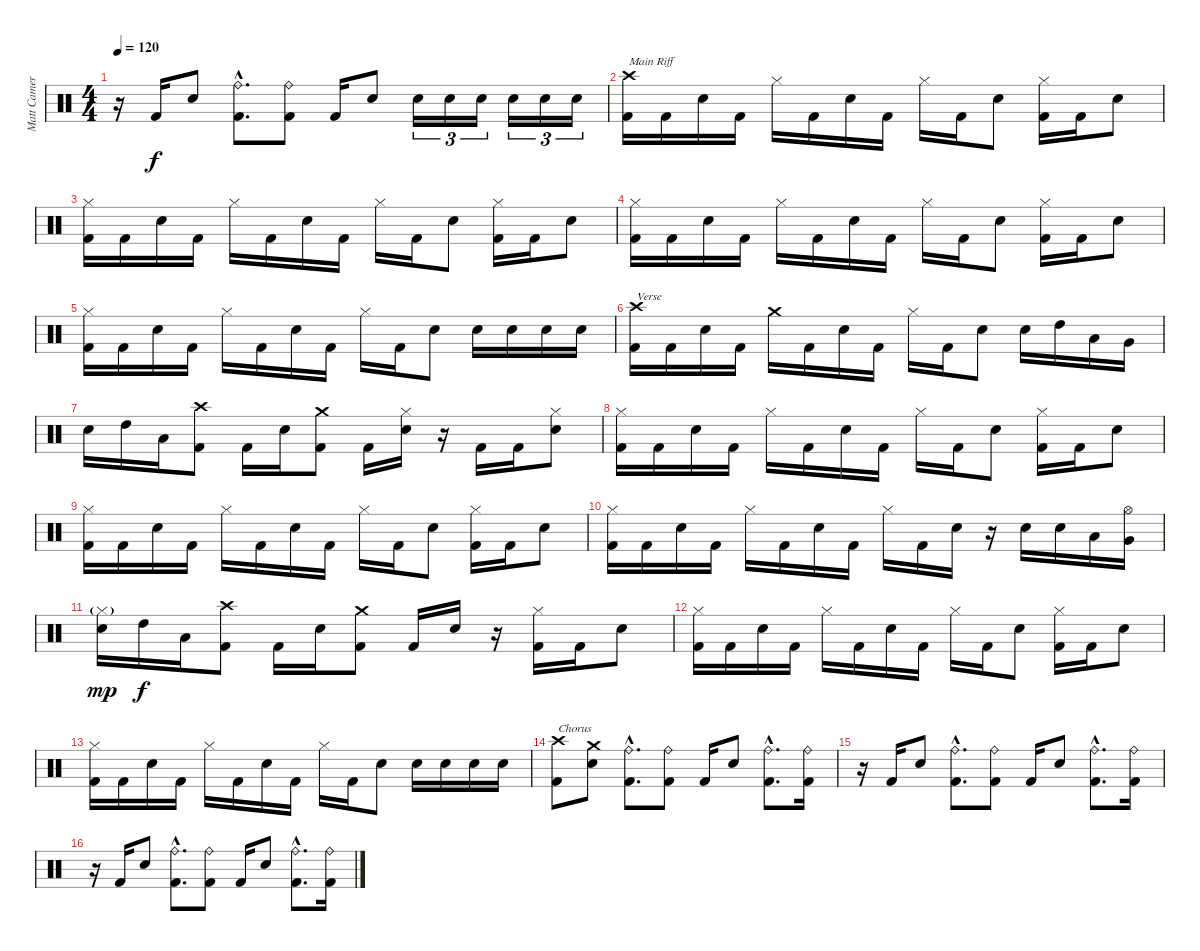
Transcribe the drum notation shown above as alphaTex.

\track ("Matt Cameron" "Matt Camer") {instrument percussion}
\staff {score}
\articulation defaults
\ts (4 4)
\tempo 120
\clef neutral
\ks c
r.16{dy f} "Kick (hit) 2".16 "Electric Snare (hit)".8 ("Ride (bell)"{hac} "Kick (hit) 2"{hac}).8{d} ("Ride (bell)" "Kick (hit) 2").8 "Kick (hit) 2".16 "Electric Snare (hit)".8 "Electric Snare (hit)".16{tu (3 2)} "Electric Snare (hit)".16{tu (3 2)} "Electric Snare (hit)".16{tu (3 2)} "Electric Snare (hit)".16{tu (3 2)} "Electric Snare (hit)".16{tu (3 2)} "Electric Snare (hit)".16{tu (3 2)} |
("Crash high (hit)" "Kick (hit) 2").16{txt "Main Riff"} "Kick (hit) 2".16 "Electric Snare (hit)".16 "Kick (hit) 2".16 "Hi-Hat (closed)".16 "Kick (hit) 2".16 "Electric Snare (hit)".16 "Kick (hit) 2".16 "Hi-Hat (closed)".16 "Kick (hit) 2".16 "Electric Snare (hit)".8 ("Hi-Hat (closed)" "Kick (hit) 2").16 "Kick (hit) 2".16 "Electric Snare (hit)".8 |
("Hi-Hat (closed)" "Kick (hit) 2").16 "Kick (hit) 2".16 "Electric Snare (hit)".16 "Kick (hit) 2".16 "Hi-Hat (closed)".16 "Kick (hit) 2".16 "Electric Snare (hit)".16 "Kick (hit) 2".16 "Hi-Hat (closed)".16 "Kick (hit) 2".16 "Electric Snare (hit)".8 ("Hi-Hat (closed)" "Kick (hit) 2").16 "Kick (hit) 2".16 "Electric Snare (hit)".8 |
("Hi-Hat (closed)" "Kick (hit) 2").16 "Kick (hit) 2".16 "Electric Snare (hit)".16 "Kick (hit) 2".16 "Hi-Hat (closed)".16 "Kick (hit) 2".16 "Electric Snare (hit)".16 "Kick (hit) 2".16 "Hi-Hat (closed)".16 "Kick (hit) 2".16 "Electric Snare (hit)".8 ("Hi-Hat (closed)" "Kick (hit) 2").16 "Kick (hit) 2".16 "Electric Snare (hit)".8 |
("Hi-Hat (closed)" "Kick (hit) 2").16 "Kick (hit) 2".16 "Electric Snare (hit)".16 "Kick (hit) 2".16 "Hi-Hat (closed)".16 "Kick (hit) 2".16 "Electric Snare (hit)".16 "Kick (hit) 2".16 "Hi-Hat (closed)".16 "Kick (hit) 2".16 "Electric Snare (hit)".8 "Electric Snare (hit)".16 "Electric Snare (hit)".16 "Electric Snare (hit)".16 "Electric Snare (hit)".16 |
("Crash high (hit)" "Kick (hit) 2").16{txt "Verse"} "Kick (hit) 2".16 "Electric Snare (hit)".16 "Kick (hit) 2".16 "Crash medium (hit)".16 "Kick (hit) 2".16 "Electric Snare (hit)".16 "Kick (hit) 2".16 "Hi-Hat (closed)".16 "Kick (hit) 2".16 "Electric Snare (hit)".8 "Electric Snare (hit)".16 "High Tom (hit)".16 "Low Tom (hit)".16 "Very Low Tom (hit)".16 |
"Electric Snare (hit)".16 "High Tom (hit)".16 "Low Tom (hit)".16 ("Crash high (hit)" "Kick (hit) 2").8 "Kick (hit) 2".16 "Electric Snare (hit)".16 ("Crash medium (hit)" "Kick (hit) 2").8 "Kick (hit) 2".16 ("Hi-Hat (closed)" "Electric Snare (hit)").16 r.16 "Kick (hit) 2".16 "Kick (hit) 2".16 ("Hi-Hat (closed)" "Electric Snare (hit)").8 |
("Hi-Hat (closed)" "Kick (hit) 2").16 "Kick (hit) 2".16 "Electric Snare (hit)".16 "Kick (hit) 2".16 "Hi-Hat (closed)".16 "Kick (hit) 2".16 "Electric Snare (hit)".16 "Kick (hit) 2".16 "Hi-Hat (closed)".16 "Kick (hit) 2".16 "Electric Snare (hit)".8 ("Hi-Hat (closed)" "Kick (hit) 2").16 "Kick (hit) 2".16 "Electric Snare (hit)".8 |
("Hi-Hat (closed)" "Kick (hit) 2").16 "Kick (hit) 2".16 "Electric Snare (hit)".16 "Kick (hit) 2".16 "Hi-Hat (closed)".16 "Kick (hit) 2".16 "Electric Snare (hit)".16 "Kick (hit) 2".16 "Hi-Hat (closed)".16 "Kick (hit) 2".16 "Electric Snare (hit)".8 ("Hi-Hat (closed)" "Kick (hit) 2").16 "Kick (hit) 2".16 "Electric Snare (hit)".8 |
("Hi-Hat (closed)" "Kick (hit) 2").16 "Kick (hit) 2".16 "Electric Snare (hit)".16 "Kick (hit) 2".16 "Hi-Hat (closed)".16 "Kick (hit) 2".16 "Electric Snare (hit)".16 "Kick (hit) 2".16 "Hi-Hat (closed)".16 "Kick (hit) 2".16 "Electric Snare (hit)".16 r.16 "Electric Snare (hit)".16 "Electric Snare (hit)".16 "Low Tom (hit)".16 ("Hi-Hat (open)" "Very Low Tom (hit)").16 |
("Hi-Hat (closed)"{g} "Electric Snare (hit)").16{dy mp} "High Tom (hit)".16{dy f} "Low Tom (hit)".16 ("Crash high (hit)" "Kick (hit) 2").8 "Kick (hit) 2".16 "Electric Snare (hit)".16 ("Crash medium (hit)" "Kick (hit) 2").8 "Kick (hit) 2".16 "Electric Snare (hit)".16 r.16 ("Hi-Hat (closed)" "Kick (hit) 2").16 "Kick (hit) 2".16 "Electric Snare (hit)".8 |
("Hi-Hat (closed)" "Kick (hit) 2").16 "Kick (hit) 2".16 "Electric Snare (hit)".16 "Kick (hit) 2".16 "Hi-Hat (closed)".16 "Kick (hit) 2".16 "Electric Snare (hit)".16 "Kick (hit) 2".16 "Hi-Hat (closed)".16 "Kick (hit) 2".16 "Electric Snare (hit)".8 ("Hi-Hat (closed)" "Kick (hit) 2").16 "Kick (hit) 2".16 "Electric Snare (hit)".8 |
("Hi-Hat (closed)" "Kick (hit) 2").16 "Kick (hit) 2".16 "Electric Snare (hit)".16 "Kick (hit) 2".16 "Hi-Hat (closed)".16 "Kick (hit) 2".16 "Electric Snare (hit)".16 "Kick (hit) 2".16 "Hi-Hat (closed)".16 "Kick (hit) 2".16 "Electric Snare (hit)".8 "Electric Snare (hit)".16 "Electric Snare (hit)".16 "Electric Snare (hit)".16 "Electric Snare (hit)".16 |
("Crash high (hit)" "Kick (hit) 2").8{txt "Chorus"} ("Crash medium (hit)" "Electric Snare (hit)").8 ("Ride (bell)"{hac} "Kick (hit) 2"{hac}).8{d} ("Ride (bell)" "Kick (hit) 2").8 "Kick (hit) 2".16 "Electric Snare (hit)".8 ("Ride (bell)"{hac} "Kick (hit) 2"{hac}).8{d} ("Ride (bell)" "Kick (hit) 2").16 |
r.16 "Kick (hit) 2".16 "Electric Snare (hit)".8 ("Ride (bell)"{hac} "Kick (hit) 2"{hac}).8{d} ("Ride (bell)" "Kick (hit) 2").8 "Kick (hit) 2".16 "Electric Snare (hit)".8 ("Ride (bell)"{hac} "Kick (hit) 2"{hac}).8{d} ("Ride (bell)" "Kick (hit) 2").16 |
r.16 "Kick (hit) 2".16 "Electric Snare (hit)".8 ("Ride (bell)"{hac} "Kick (hit) 2"{hac}).8{d} ("Ride (bell)" "Kick (hit) 2").8 "Kick (hit) 2".16 "Electric Snare (hit)".8 ("Ride (bell)"{hac} "Kick (hit) 2"{hac}).8{d} ("Ride (bell)" "Kick (hit) 2").16
